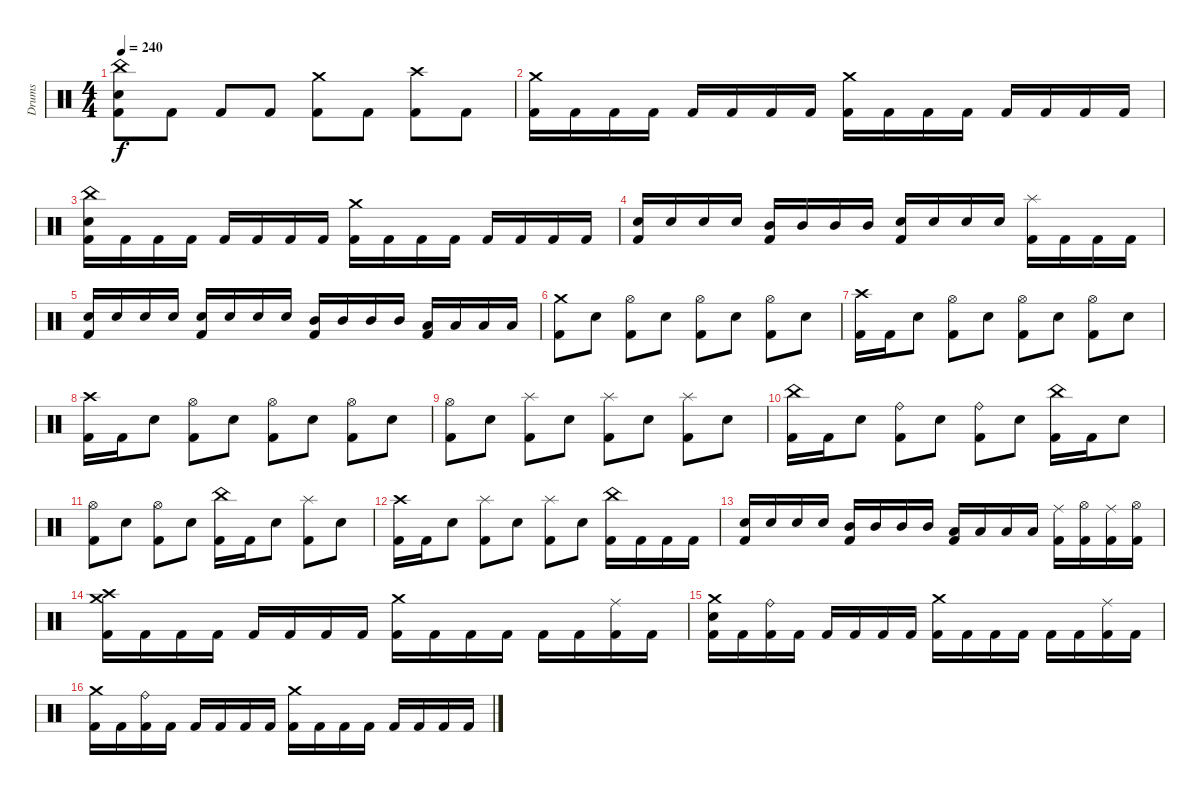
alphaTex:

\track ("Drums" "Drums") {instrument percussion}
\staff {score}
\articulation defaults
\ts (4 4)
\tempo 240
\clef neutral
\ks c
("China (hit)" "Electric Snare (hit)" "Kick (hit) 2").8{dy f} "Kick (hit) 2".8 "Kick (hit) 2".8 "Kick (hit) 2".8 ("Crash medium (hit)" "Kick (hit) 2").8 "Kick (hit) 2".8 ("Crash high (hit)" "Kick (hit) 2").8 "Kick (hit) 2".8 |
("Crash medium (hit)" "Kick (hit) 2").16 "Kick (hit) 2".16 "Kick (hit) 2".16 "Kick (hit) 2".16 "Kick (hit) 2".16 "Kick (hit) 2".16 "Kick (hit) 2".16 "Kick (hit) 2".16 ("Crash medium (hit)" "Kick (hit) 2").16 "Kick (hit) 2".16 "Kick (hit) 2".16 "Kick (hit) 2".16 "Kick (hit) 2".16 "Kick (hit) 2".16 "Kick (hit) 2".16 "Kick (hit) 2".16 |
("China (hit)" "Electric Snare (hit)" "Kick (hit) 2").16 "Kick (hit) 2".16 "Kick (hit) 2".16 "Kick (hit) 2".16 "Kick (hit) 2".16 "Kick (hit) 2".16 "Kick (hit) 2".16 "Kick (hit) 2".16 ("Crash medium (hit)" "Kick (hit) 2").16 "Kick (hit) 2".16 "Kick (hit) 2".16 "Kick (hit) 2".16 "Kick (hit) 2".16 "Kick (hit) 2".16 "Kick (hit) 2".16 "Kick (hit) 2".16 |
("Electric Snare (hit)" "Kick (hit) 2").16 "Electric Snare (hit)".16 "Electric Snare (hit)".16 "Electric Snare (hit)".16 ("Mid Tom (hit)" "Kick (hit) 2").16 "Mid Tom (hit)".16 "Mid Tom (hit)".16 "Mid Tom (hit)".16 ("Electric Snare (hit)" "Kick (hit) 2").16 "Electric Snare (hit)".16 "Electric Snare (hit)".16 "Electric Snare (hit)".16 ("Splash (hit)" "Kick (hit) 2").16 "Kick (hit) 2".16 "Kick (hit) 2".16 "Kick (hit) 2".16 |
("Electric Snare (hit)" "Kick (hit) 2").16 "Electric Snare (hit)".16 "Electric Snare (hit)".16 "Electric Snare (hit)".16 ("Electric Snare (hit)" "Kick (hit) 2").16 "Electric Snare (hit)".16 "Electric Snare (hit)".16 "Electric Snare (hit)".16 ("Mid Tom (hit)" "Kick (hit) 2").16 "Mid Tom (hit)".16 "Mid Tom (hit)".16 "Mid Tom (hit)".16 ("Low Tom (hit)" "Kick (hit) 2").16 "Low Tom (hit)".16 "Low Tom (hit)".16 "Low Tom (hit)".16 |
("Crash medium (hit)" "Kick (hit) 2").8 "Electric Snare (hit)".8 ("Hi-Hat (open)" "Kick (hit) 2").8 "Electric Snare (hit)".8 ("Hi-Hat (open)" "Kick (hit) 2").8 "Electric Snare (hit)".8 ("Hi-Hat (open)" "Kick (hit) 2").8 "Electric Snare (hit)".8 |
("Crash high (hit)" "Kick (hit) 2").16 "Kick (hit) 2".16 "Electric Snare (hit)".8 ("Hi-Hat (open)" "Kick (hit) 2").8 "Electric Snare (hit)".8 ("Hi-Hat (open)" "Kick (hit) 2").8 "Electric Snare (hit)".8 ("Hi-Hat (open)" "Kick (hit) 2").8 "Electric Snare (hit)".8 |
("Crash high (hit)" "Kick (hit) 2").16 "Kick (hit) 2".16 "Electric Snare (hit)".8 ("Hi-Hat (open)" "Kick (hit) 2").8 "Electric Snare (hit)".8 ("Hi-Hat (open)" "Kick (hit) 2").8 "Electric Snare (hit)".8 ("Hi-Hat (open)" "Kick (hit) 2").8 "Electric Snare (hit)".8 |
("Hi-Hat (open)" "Kick (hit) 2").8 "Electric Snare (hit)".8 ("Splash (hit)" "Kick (hit) 2").8 "Electric Snare (hit)".8 ("Splash (hit)" "Kick (hit) 2").8 "Electric Snare (hit)".8 ("Splash (hit)" "Kick (hit) 2").8 "Electric Snare (hit)".8 |
("China (hit)" "Kick (hit) 2").16 "Kick (hit) 2".16 "Electric Snare (hit)".8 ("Ride (bell)" "Kick (hit) 2").8 "Electric Snare (hit)".8 ("Ride (bell)" "Kick (hit) 2").8 "Electric Snare (hit)".8 ("China (hit)" "Kick (hit) 2").16 "Kick (hit) 2".16 "Electric Snare (hit)".8 |
("Hi-Hat (open)" "Kick (hit) 2").8 "Electric Snare (hit)".8 ("Hi-Hat (open)" "Kick (hit) 2").8 "Electric Snare (hit)".8 ("China (hit)" "Kick (hit) 2").16 "Kick (hit) 2".16 "Electric Snare (hit)".8 ("Splash (hit)" "Kick (hit) 2").8 "Electric Snare (hit)".8 |
("Crash high (hit)" "Kick (hit) 2").16 "Kick (hit) 2".16 "Electric Snare (hit)".8 ("Splash (hit)" "Kick (hit) 2").8 "Electric Snare (hit)".8 ("Splash (hit)" "Kick (hit) 2").8 "Electric Snare (hit)".8 ("China (hit)" "Kick (hit) 2").16 "Kick (hit) 2".16 "Kick (hit) 2".16 "Kick (hit) 2".16 |
("Electric Snare (hit)" "Kick (hit) 2").16 "Electric Snare (hit)".16 "Electric Snare (hit)".16 "Electric Snare (hit)".16 ("Mid Tom (hit)" "Kick (hit) 2").16 "Mid Tom (hit)".16 "Mid Tom (hit)".16 "Mid Tom (hit)".16 ("Low Tom (hit)" "Kick (hit) 2").16 "Low Tom (hit)".16 "Low Tom (hit)".16 "Low Tom (hit)".16 ("Ride (middle)" "Kick (hit) 2").16 ("Hi-Hat (open)" "Kick (hit) 2").16 ("Ride (middle)" "Kick (hit) 2").16 ("Hi-Hat (open)" "Kick (hit) 2").16 |
("Crash medium (hit)" "Crash high (hit)" "Kick (hit) 2").16 "Kick (hit) 2".16 "Kick (hit) 2".16 "Kick (hit) 2".16 "Kick (hit) 2".16 "Kick (hit) 2".16 "Kick (hit) 2".16 "Kick (hit) 2".16 ("Crash medium (hit)" "Kick (hit) 2").16 "Kick (hit) 2".16 "Kick (hit) 2".16 "Kick (hit) 2".16 "Kick (hit) 2".16 "Kick (hit) 2".16 ("Ride (middle)" "Kick (hit) 2").16 "Kick (hit) 2".16 |
("Crash medium (hit)" "Electric Snare (hit)" "Kick (hit) 2").16 "Kick (hit) 2".16 ("Ride (bell)" "Kick (hit) 2").16 "Kick (hit) 2".16 "Kick (hit) 2".16 "Kick (hit) 2".16 "Kick (hit) 2".16 "Kick (hit) 2".16 ("Crash medium (hit)" "Kick (hit) 2").16 "Kick (hit) 2".16 "Kick (hit) 2".16 "Kick (hit) 2".16 "Kick (hit) 2".16 "Kick (hit) 2".16 ("Ride (middle)" "Kick (hit) 2").16 "Kick (hit) 2".16 |
("Crash medium (hit)" "Kick (hit) 2").16 "Kick (hit) 2".16 ("Ride (bell)" "Kick (hit) 2").16 "Kick (hit) 2".16 "Kick (hit) 2".16 "Kick (hit) 2".16 "Kick (hit) 2".16 "Kick (hit) 2".16 ("Crash medium (hit)" "Kick (hit) 2").16 "Kick (hit) 2".16 "Kick (hit) 2".16 "Kick (hit) 2".16 "Kick (hit) 2".16 "Kick (hit) 2".16 "Kick (hit) 2".16 "Kick (hit) 2".16
